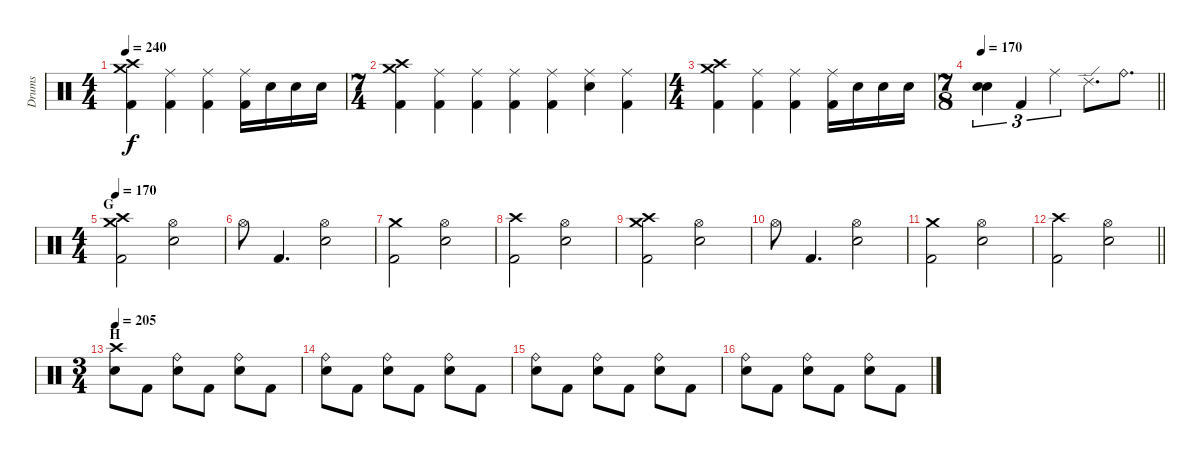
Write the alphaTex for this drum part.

\track ("Drums" "Drums") {instrument percussion}
\staff {score}
\articulation defaults
\ts (4 4)
\tempo 240
\clef neutral
\ks c
("Crash medium (hit)" "Crash high (hit)" "Kick (hit) 2").4{dy f} ("Ride (middle)" "Kick (hit) 2").4 ("Ride (middle)" "Kick (hit) 2").4 ("Ride (middle)" "Kick (hit) 2").16 "Electric Snare (hit)".16 "Electric Snare (hit)".16 "Electric Snare (hit)".16 |
\ts (7 4)
("Crash medium (hit)" "Crash high (hit)" "Kick (hit) 2").4 ("Ride (middle)" "Kick (hit) 2").4 ("Ride (middle)" "Kick (hit) 2").4 ("Ride (middle)" "Kick (hit) 2").4 ("Ride (middle)" "Kick (hit) 2").4 ("Ride (middle)" "Electric Snare (hit)").4 ("Ride (middle)" "Kick (hit) 2").4 |
\ts (4 4)
("Crash medium (hit)" "Crash high (hit)" "Kick (hit) 2").4 ("Ride (middle)" "Kick (hit) 2").4 ("Ride (middle)" "Kick (hit) 2").4 ("Ride (middle)" "Kick (hit) 2").16 "Electric Snare (hit)".16 "Electric Snare (hit)".16 "Electric Snare (hit)".16 |
\ts (7 8)
\tempo 170
\barLineRight lightlight
("Electric Snare (hit)" "Electric Snare (hit)").4{tu (3 2) bu 120} "Kick (hit) 2".4{tu (3 2)} "Ride (middle)".4{tu (3 2)} "Ride (edge) 2".8{d} "Ride (bell)".8{d} |
\ts (4 4)
\section ("" "G")
\tempo 170
("Crash medium (hit)" "Crash high (hit)" "Kick (hit) 2").2 ("Hi-Hat (open)" "Electric Snare (hit)").2 |
"Hi-Hat (open)".8 "Kick (hit) 2".4{d} ("Hi-Hat (open)" "Electric Snare (hit)").2 |
("Crash medium (hit)" "Kick (hit) 2").2 ("Hi-Hat (open)" "Electric Snare (hit)").2 |
("Crash high (hit)" "Kick (hit) 2").2 ("Hi-Hat (open)" "Electric Snare (hit)").2 |
("Crash medium (hit)" "Crash high (hit)" "Kick (hit) 2").2 ("Hi-Hat (open)" "Electric Snare (hit)").2 |
"Hi-Hat (open)".8 "Kick (hit) 2".4{d} ("Hi-Hat (open)" "Electric Snare (hit)").2 |
("Crash medium (hit)" "Kick (hit) 2").2 ("Hi-Hat (open)" "Electric Snare (hit)").2 |
\barLineRight lightlight
("Crash high (hit)" "Kick (hit) 2").2 ("Hi-Hat (open)" "Electric Snare (hit)").2 |
\ts (3 4)
\section ("" "H")
\tempo 205
("Crash high (hit)" "Electric Snare (hit)").8 "Kick (hit) 2".8 ("Ride (bell)" "Electric Snare (hit)").8 "Kick (hit) 2".8 ("Ride (bell)" "Electric Snare (hit)").8 "Kick (hit) 2".8 |
("Ride (bell)" "Electric Snare (hit)").8 "Kick (hit) 2".8 ("Ride (bell)" "Electric Snare (hit)").8 "Kick (hit) 2".8 ("Ride (bell)" "Electric Snare (hit)").8 "Kick (hit) 2".8 |
("Ride (bell)" "Electric Snare (hit)").8 "Kick (hit) 2".8 ("Ride (bell)" "Electric Snare (hit)").8 "Kick (hit) 2".8 ("Ride (bell)" "Electric Snare (hit)").8 "Kick (hit) 2".8 |
("Ride (bell)" "Electric Snare (hit)").8 "Kick (hit) 2".8 ("Ride (bell)" "Electric Snare (hit)").8 "Kick (hit) 2".8 ("Ride (bell)" "Electric Snare (hit)").8 "Kick (hit) 2".8
